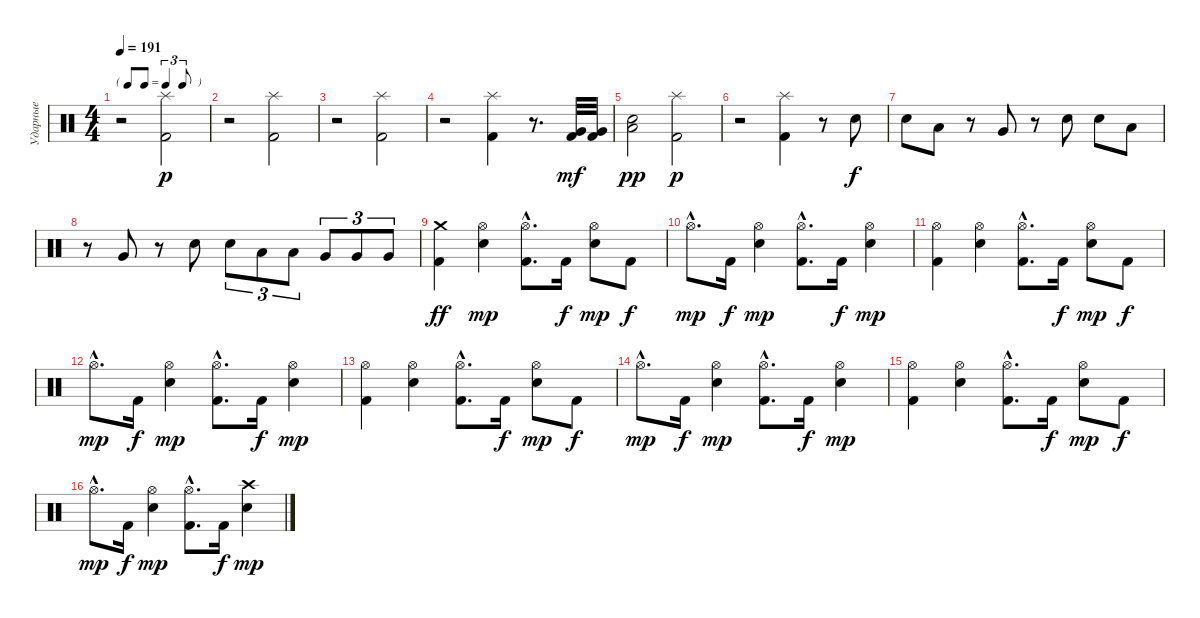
\track ("Ударные" "Ударные") {instrument percussion}
\staff {score}
\articulation defaults
\ts (4 4)
\tf triplet8th
\tempo 191
\clef neutral
\ks c
r.2{dy p} ("Splash (hit)" "Kick (hit) 2").2 |
r.2 ("Splash (hit)" "Kick (hit) 2").2 |
r.2 ("Splash (hit)" "Kick (hit) 2").2 |
r.2 ("Splash (hit)" "Kick (hit) 2").4 r.8{d} ("Very Low Tom (hit)" "Kick (hit) 2").32{dy mf} ("Very Low Tom (hit)" "Kick (hit) 2").32 |
("Low Floor Tom (hit)" "Electric Snare (hit)").2{dy pp} ("Splash (hit)" "Kick (hit) 2").2{dy p} |
r.2 ("Splash (hit)" "Kick (hit) 2").4 r.8 "Electric Snare (hit)".8{dy f} |
"Electric Snare (hit)".8 "Low Tom (hit)".8 r.8 "Very Low Tom (hit)".8 r.8 "Electric Snare (hit)".8 "Electric Snare (hit)".8 "Low Tom (hit)".8 |
r.8 "Very Low Tom (hit)".8 r.8 "Electric Snare (hit)".8 "Electric Snare (hit)".8{tu (3 2)} "Low Tom (hit)".8{tu (3 2)} "Low Tom (hit)".8{tu (3 2)} "Very Low Tom (hit)".8{tu (3 2)} "Very Low Tom (hit)".8{tu (3 2)} "Very Low Tom (hit)".8{tu (3 2)} |
("Crash medium (hit)" "Kick (hit) 2").4{dy ff} ("Snare (hit) 2" "Hi-Hat (open)").4{dy mp} ("Kick (hit) 2"{hac} "Hi-Hat (open)"{hac}).8{d} "Kick (hit) 2".16{dy f} ("Snare (hit) 2" "Hi-Hat (open)").8{dy mp} "Kick (hit) 2".8{dy f} |
"Hi-Hat (open)"{hac}.8{d dy mp} "Kick (hit) 2".16{dy f} ("Snare (hit) 2" "Hi-Hat (open)").4{dy mp} ("Kick (hit) 2"{hac} "Hi-Hat (open)"{hac}).8{d} "Kick (hit) 2".16{dy f} ("Snare (hit) 2" "Hi-Hat (open)").4{dy mp} |
("Kick (hit) 2" "Hi-Hat (open)").4 ("Snare (hit) 2" "Hi-Hat (open)").4 ("Kick (hit) 2"{hac} "Hi-Hat (open)"{hac}).8{d} "Kick (hit) 2".16{dy f} ("Snare (hit) 2" "Hi-Hat (open)").8{dy mp} "Kick (hit) 2".8{dy f} |
"Hi-Hat (open)"{hac}.8{d dy mp} "Kick (hit) 2".16{dy f} ("Snare (hit) 2" "Hi-Hat (open)").4{dy mp} ("Kick (hit) 2"{hac} "Hi-Hat (open)"{hac}).8{d} "Kick (hit) 2".16{dy f} ("Snare (hit) 2" "Hi-Hat (open)").4{dy mp} |
("Kick (hit) 2" "Hi-Hat (open)").4 ("Snare (hit) 2" "Hi-Hat (open)").4 ("Kick (hit) 2"{hac} "Hi-Hat (open)"{hac}).8{d} "Kick (hit) 2".16{dy f} ("Snare (hit) 2" "Hi-Hat (open)").8{dy mp} "Kick (hit) 2".8{dy f} |
"Hi-Hat (open)"{hac}.8{d dy mp} "Kick (hit) 2".16{dy f} ("Snare (hit) 2" "Hi-Hat (open)").4{dy mp} ("Kick (hit) 2"{hac} "Hi-Hat (open)"{hac}).8{d} "Kick (hit) 2".16{dy f} ("Snare (hit) 2" "Hi-Hat (open)").4{dy mp} |
("Kick (hit) 2" "Hi-Hat (open)").4 ("Snare (hit) 2" "Hi-Hat (open)").4 ("Kick (hit) 2"{hac} "Hi-Hat (open)"{hac}).8{d} "Kick (hit) 2".16{dy f} ("Snare (hit) 2" "Hi-Hat (open)").8{dy mp} "Kick (hit) 2".8{dy f} |
"Hi-Hat (open)"{hac}.8{d dy mp} "Kick (hit) 2".16{dy f} ("Snare (hit) 2" "Hi-Hat (open)").4{dy mp} ("Kick (hit) 2"{hac} "Hi-Hat (open)"{hac}).8{d} "Kick (hit) 2".16{dy f} ("Crash high (hit)" "Snare (hit) 2").4{dy mp}
